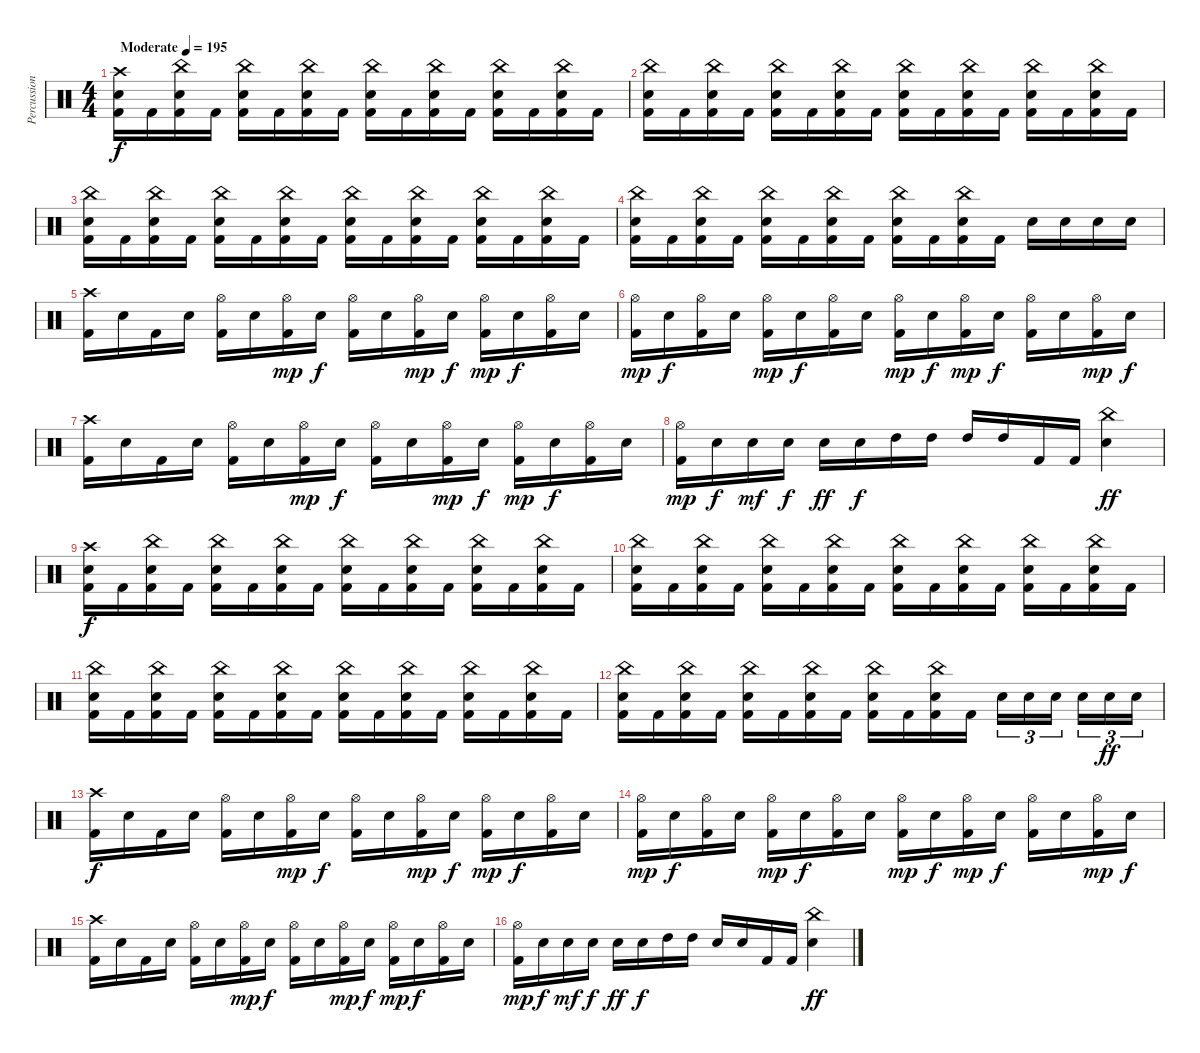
\track ("Percussion" "Percussion") {instrument percussion}
\staff {score}
\articulation defaults
\ts (4 4)
\tempo (195 "Moderate")
\clef neutral
\ks c
("Crash high (hit)" "Snare (hit) 2" "Kick (hit) 2").16{dy f} "Kick (hit) 2".16 ("China (hit)" "Snare (hit) 2" "Kick (hit) 2").16 "Kick (hit) 2".16 ("China (hit)" "Snare (hit) 2" "Kick (hit) 2").16 "Kick (hit) 2".16 ("China (hit)" "Snare (hit) 2" "Kick (hit) 2").16 "Kick (hit) 2".16 ("China (hit)" "Snare (hit) 2" "Kick (hit) 2").16 "Kick (hit) 2".16 ("China (hit)" "Snare (hit) 2" "Kick (hit) 2").16 "Kick (hit) 2".16 ("China (hit)" "Snare (hit) 2" "Kick (hit) 2").16 "Kick (hit) 2".16 ("China (hit)" "Snare (hit) 2" "Kick (hit) 2").16 "Kick (hit) 2".16 |
("China (hit)" "Snare (hit) 2" "Kick (hit) 2").16 "Kick (hit) 2".16 ("China (hit)" "Snare (hit) 2" "Kick (hit) 2").16 "Kick (hit) 2".16 ("China (hit)" "Snare (hit) 2" "Kick (hit) 2").16 "Kick (hit) 2".16 ("China (hit)" "Snare (hit) 2" "Kick (hit) 2").16 "Kick (hit) 2".16 ("China (hit)" "Snare (hit) 2" "Kick (hit) 2").16 "Kick (hit) 2".16 ("China (hit)" "Snare (hit) 2" "Kick (hit) 2").16 "Kick (hit) 2".16 ("China (hit)" "Snare (hit) 2" "Kick (hit) 2").16 "Kick (hit) 2".16 ("China (hit)" "Snare (hit) 2" "Kick (hit) 2").16 "Kick (hit) 2".16 |
("China (hit)" "Snare (hit) 2" "Kick (hit) 2").16 "Kick (hit) 2".16 ("China (hit)" "Snare (hit) 2" "Kick (hit) 2").16 "Kick (hit) 2".16 ("China (hit)" "Snare (hit) 2" "Kick (hit) 2").16 "Kick (hit) 2".16 ("China (hit)" "Snare (hit) 2" "Kick (hit) 2").16 "Kick (hit) 2".16 ("China (hit)" "Snare (hit) 2" "Kick (hit) 2").16 "Kick (hit) 2".16 ("China (hit)" "Snare (hit) 2" "Kick (hit) 2").16 "Kick (hit) 2".16 ("China (hit)" "Snare (hit) 2" "Kick (hit) 2").16 "Kick (hit) 2".16 ("China (hit)" "Snare (hit) 2" "Kick (hit) 2").16 "Kick (hit) 2".16 |
("China (hit)" "Snare (hit) 2" "Kick (hit) 2").16 "Kick (hit) 2".16 ("China (hit)" "Snare (hit) 2" "Kick (hit) 2").16 "Kick (hit) 2".16 ("China (hit)" "Snare (hit) 2" "Kick (hit) 2").16 "Kick (hit) 2".16 ("China (hit)" "Snare (hit) 2" "Kick (hit) 2").16 "Kick (hit) 2".16 ("China (hit)" "Snare (hit) 2" "Kick (hit) 2").16 "Kick (hit) 2".16 ("China (hit)" "Snare (hit) 2" "Kick (hit) 2").16 "Kick (hit) 2".16 "Snare (hit) 2".16 "Snare (hit) 2".16 "Snare (hit) 2".16 "Snare (hit) 2".16 |
("Crash high (hit)" "Kick (hit) 2").16 "Snare (hit) 2".16 "Kick (hit) 2".16 "Snare (hit) 2".16 ("Hi-Hat (open)" "Kick (hit) 2").16 "Snare (hit) 2".16 ("Hi-Hat (open)" "Kick (hit) 2").16{dy mp} "Snare (hit) 2".16{dy f} ("Hi-Hat (open)" "Kick (hit) 2").16 "Snare (hit) 2".16 ("Hi-Hat (open)" "Kick (hit) 2").16{dy mp} "Snare (hit) 2".16{dy f} ("Hi-Hat (open)" "Kick (hit) 2").16{dy mp} "Snare (hit) 2".16{dy f} ("Hi-Hat (open)" "Kick (hit) 2").16 "Snare (hit) 2".16 |
("Hi-Hat (open)" "Kick (hit) 2").16{dy mp} "Snare (hit) 2".16{dy f} ("Hi-Hat (open)" "Kick (hit) 2").16 "Snare (hit) 2".16 ("Hi-Hat (open)" "Kick (hit) 2").16{dy mp} "Snare (hit) 2".16{dy f} ("Hi-Hat (open)" "Kick (hit) 2").16 "Snare (hit) 2".16 ("Hi-Hat (open)" "Kick (hit) 2").16{dy mp} "Snare (hit) 2".16{dy f} ("Hi-Hat (open)" "Kick (hit) 2").16{dy mp} "Snare (hit) 2".16{dy f} ("Hi-Hat (open)" "Kick (hit) 2").16 "Snare (hit) 2".16 ("Hi-Hat (open)" "Kick (hit) 2").16{dy mp} "Snare (hit) 2".16{dy f} |
("Crash high (hit)" "Kick (hit) 2").16 "Snare (hit) 2".16 "Kick (hit) 2".16 "Snare (hit) 2".16 ("Hi-Hat (open)" "Kick (hit) 2").16 "Snare (hit) 2".16 ("Hi-Hat (open)" "Kick (hit) 2").16{dy mp} "Snare (hit) 2".16{dy f} ("Hi-Hat (open)" "Kick (hit) 2").16 "Snare (hit) 2".16 ("Hi-Hat (open)" "Kick (hit) 2").16{dy mp} "Snare (hit) 2".16{dy f} ("Hi-Hat (open)" "Kick (hit) 2").16{dy mp} "Snare (hit) 2".16{dy f} ("Hi-Hat (open)" "Kick (hit) 2").16 "Snare (hit) 2".16 |
("Hi-Hat (open)" "Kick (hit) 2").16{dy mp} "Snare (hit) 2".16{dy f} "Snare (hit) 2".16{dy mf} "Snare (hit) 2".16{dy f} "Snare (hit) 2".16{dy ff} "Snare (hit) 2".16{dy f} "High Tom (hit)".16 "High Tom (hit)".16 "High Tom (hit)".16 "High Tom (hit)".16 "Kick (hit) 2".16 "Kick (hit) 2".16 ("China (hit)" "Snare (hit) 2").4{dy ff} |
("Crash high (hit)" "Snare (hit) 2" "Kick (hit) 2").16{dy f} "Kick (hit) 2".16 ("China (hit)" "Snare (hit) 2" "Kick (hit) 2").16 "Kick (hit) 2".16 ("China (hit)" "Snare (hit) 2" "Kick (hit) 2").16 "Kick (hit) 2".16 ("China (hit)" "Snare (hit) 2" "Kick (hit) 2").16 "Kick (hit) 2".16 ("China (hit)" "Snare (hit) 2" "Kick (hit) 2").16 "Kick (hit) 2".16 ("China (hit)" "Snare (hit) 2" "Kick (hit) 2").16 "Kick (hit) 2".16 ("China (hit)" "Snare (hit) 2" "Kick (hit) 2").16 "Kick (hit) 2".16 ("China (hit)" "Snare (hit) 2" "Kick (hit) 2").16 "Kick (hit) 2".16 |
("China (hit)" "Snare (hit) 2" "Kick (hit) 2").16 "Kick (hit) 2".16 ("China (hit)" "Snare (hit) 2" "Kick (hit) 2").16 "Kick (hit) 2".16 ("China (hit)" "Snare (hit) 2" "Kick (hit) 2").16 "Kick (hit) 2".16 ("China (hit)" "Snare (hit) 2" "Kick (hit) 2").16 "Kick (hit) 2".16 ("China (hit)" "Snare (hit) 2" "Kick (hit) 2").16 "Kick (hit) 2".16 ("China (hit)" "Snare (hit) 2" "Kick (hit) 2").16 "Kick (hit) 2".16 ("China (hit)" "Snare (hit) 2" "Kick (hit) 2").16 "Kick (hit) 2".16 ("China (hit)" "Snare (hit) 2" "Kick (hit) 2").16 "Kick (hit) 2".16 |
("China (hit)" "Snare (hit) 2" "Kick (hit) 2").16 "Kick (hit) 2".16 ("China (hit)" "Snare (hit) 2" "Kick (hit) 2").16 "Kick (hit) 2".16 ("China (hit)" "Snare (hit) 2" "Kick (hit) 2").16 "Kick (hit) 2".16 ("China (hit)" "Snare (hit) 2" "Kick (hit) 2").16 "Kick (hit) 2".16 ("China (hit)" "Snare (hit) 2" "Kick (hit) 2").16 "Kick (hit) 2".16 ("China (hit)" "Snare (hit) 2" "Kick (hit) 2").16 "Kick (hit) 2".16 ("China (hit)" "Snare (hit) 2" "Kick (hit) 2").16 "Kick (hit) 2".16 ("China (hit)" "Snare (hit) 2" "Kick (hit) 2").16 "Kick (hit) 2".16 |
("China (hit)" "Snare (hit) 2" "Kick (hit) 2").16 "Kick (hit) 2".16 ("China (hit)" "Snare (hit) 2" "Kick (hit) 2").16 "Kick (hit) 2".16 ("China (hit)" "Snare (hit) 2" "Kick (hit) 2").16 "Kick (hit) 2".16 ("China (hit)" "Snare (hit) 2" "Kick (hit) 2").16 "Kick (hit) 2".16 ("China (hit)" "Snare (hit) 2" "Kick (hit) 2").16 "Kick (hit) 2".16 ("China (hit)" "Snare (hit) 2" "Kick (hit) 2").16 "Kick (hit) 2".16 "Snare (hit) 2".16{tu (3 2)} "Snare (hit) 2".16{tu (3 2)} "Snare (hit) 2".16{tu (3 2) beam splitsecondary} "Snare (hit) 2".16{tu (3 2)} "Snare (hit) 2".16{tu (3 2) dy ff} "Snare (hit) 2".16{tu (3 2)} |
("Crash high (hit)" "Kick (hit) 2").16{dy f} "Snare (hit) 2".16 "Kick (hit) 2".16 "Snare (hit) 2".16 ("Hi-Hat (open)" "Kick (hit) 2").16 "Snare (hit) 2".16 ("Hi-Hat (open)" "Kick (hit) 2").16{dy mp} "Snare (hit) 2".16{dy f} ("Hi-Hat (open)" "Kick (hit) 2").16 "Snare (hit) 2".16 ("Hi-Hat (open)" "Kick (hit) 2").16{dy mp} "Snare (hit) 2".16{dy f} ("Hi-Hat (open)" "Kick (hit) 2").16{dy mp} "Snare (hit) 2".16{dy f} ("Hi-Hat (open)" "Kick (hit) 2").16 "Snare (hit) 2".16 |
("Hi-Hat (open)" "Kick (hit) 2").16{dy mp} "Snare (hit) 2".16{dy f} ("Hi-Hat (open)" "Kick (hit) 2").16 "Snare (hit) 2".16 ("Hi-Hat (open)" "Kick (hit) 2").16{dy mp} "Snare (hit) 2".16{dy f} ("Hi-Hat (open)" "Kick (hit) 2").16 "Snare (hit) 2".16 ("Hi-Hat (open)" "Kick (hit) 2").16{dy mp} "Snare (hit) 2".16{dy f} ("Hi-Hat (open)" "Kick (hit) 2").16{dy mp} "Snare (hit) 2".16{dy f} ("Hi-Hat (open)" "Kick (hit) 2").16 "Snare (hit) 2".16 ("Hi-Hat (open)" "Kick (hit) 2").16{dy mp} "Snare (hit) 2".16{dy f} |
("Crash high (hit)" "Kick (hit) 2").16 "Snare (hit) 2".16 "Kick (hit) 2".16 "Snare (hit) 2".16 ("Hi-Hat (open)" "Kick (hit) 2").16 "Snare (hit) 2".16 ("Hi-Hat (open)" "Kick (hit) 2").16{dy mp} "Snare (hit) 2".16{dy f} ("Hi-Hat (open)" "Kick (hit) 2").16 "Snare (hit) 2".16 ("Hi-Hat (open)" "Kick (hit) 2").16{dy mp} "Snare (hit) 2".16{dy f} ("Hi-Hat (open)" "Kick (hit) 2").16{dy mp} "Snare (hit) 2".16{dy f} ("Hi-Hat (open)" "Kick (hit) 2").16 "Snare (hit) 2".16 |
("Hi-Hat (open)" "Kick (hit) 2").16{dy mp} "Snare (hit) 2".16{dy f} "Snare (hit) 2".16{dy mf} "Snare (hit) 2".16{dy f} "Snare (hit) 2".16{dy ff} "Snare (hit) 2".16{dy f} "High Tom (hit)".16 "High Tom (hit)".16 "Snare (hit) 2".16 "Snare (hit) 2".16 "Kick (hit) 2".16 "Kick (hit) 2".16 ("China (hit)" "Snare (hit) 2").4{dy ff}
